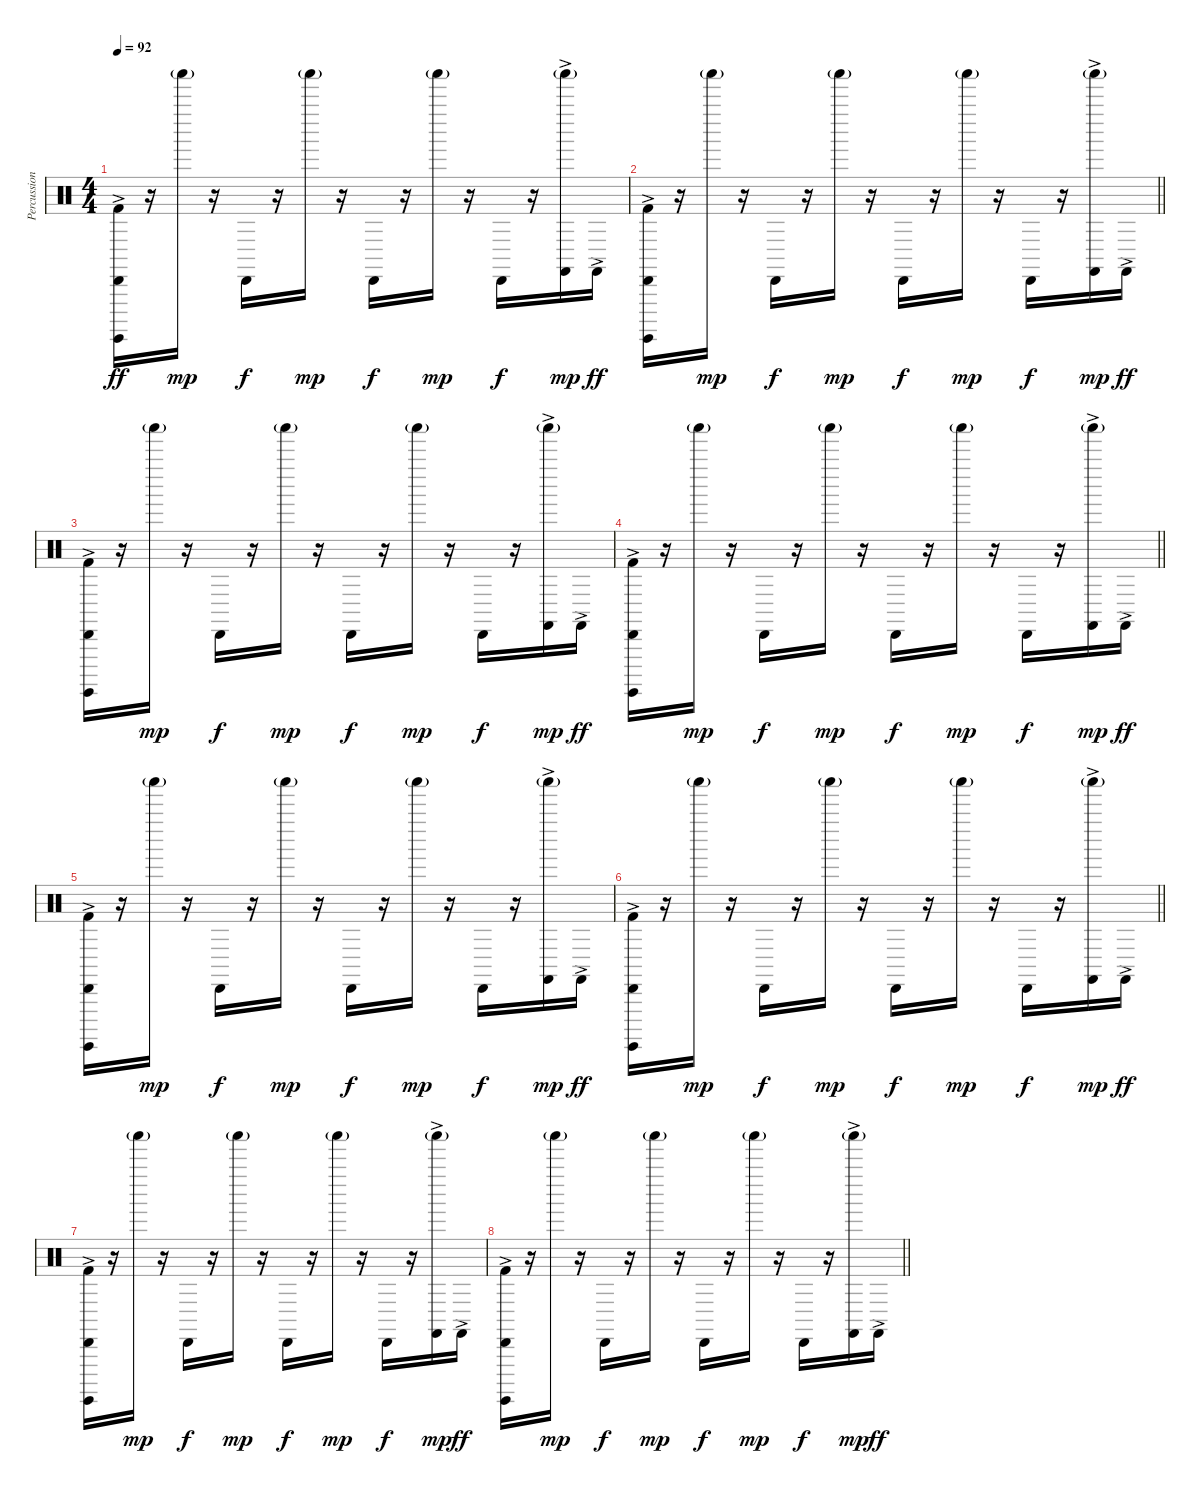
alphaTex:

\track ("Percussion" "Percussion") {instrument percussion}
\staff {score}
\articulation defaults
\ts (4 4)
\tempo 92
\clef neutral
\ks c
("Kick (hit) 2" "Surdo (hit)"{ac} "Cabasa (hit)").16{dy ff} r.16 "Shaker (hit)"{g}.16{dy mp} r.16 "Cabasa (hit)".16{dy f} r.16 "Shaker (hit)"{g}.16{dy mp} r.16 "Cabasa (hit)".16{dy f} r.16 "Shaker (hit)"{g}.16{dy mp} r.16 "Cabasa (hit)".16{dy f} r.16 ("Castanets (hit)"{ac} "Shaker (hit)"{g}).16{dy mp} "Castanets (hit)"{ac}.16{dy ff} |
\barLineRight lightlight
("Kick (hit) 2" "Surdo (hit)"{ac} "Cabasa (hit)").16 r.16 "Shaker (hit)"{g}.16{dy mp} r.16 "Cabasa (hit)".16{dy f} r.16 "Shaker (hit)"{g}.16{dy mp} r.16 "Cabasa (hit)".16{dy f} r.16 "Shaker (hit)"{g}.16{dy mp} r.16 "Cabasa (hit)".16{dy f} r.16 ("Castanets (hit)"{ac} "Shaker (hit)"{g}).16{dy mp} "Castanets (hit)"{ac}.16{dy ff} |
("Kick (hit) 2" "Surdo (hit)"{ac} "Cabasa (hit)").16 r.16 "Shaker (hit)"{g}.16{dy mp} r.16 "Cabasa (hit)".16{dy f} r.16 "Shaker (hit)"{g}.16{dy mp} r.16 "Cabasa (hit)".16{dy f} r.16 "Shaker (hit)"{g}.16{dy mp} r.16 "Cabasa (hit)".16{dy f} r.16 ("Castanets (hit)"{ac} "Shaker (hit)"{g}).16{dy mp} "Castanets (hit)"{ac}.16{dy ff} |
\barLineRight lightlight
("Kick (hit) 2" "Surdo (hit)"{ac} "Cabasa (hit)").16 r.16 "Shaker (hit)"{g}.16{dy mp} r.16 "Cabasa (hit)".16{dy f} r.16 "Shaker (hit)"{g}.16{dy mp} r.16 "Cabasa (hit)".16{dy f} r.16 "Shaker (hit)"{g}.16{dy mp} r.16 "Cabasa (hit)".16{dy f} r.16 ("Castanets (hit)"{ac} "Shaker (hit)"{g}).16{dy mp} "Castanets (hit)"{ac}.16{dy ff} |
("Kick (hit) 2" "Surdo (hit)"{ac} "Cabasa (hit)").16 r.16 "Shaker (hit)"{g}.16{dy mp} r.16 "Cabasa (hit)".16{dy f} r.16 "Shaker (hit)"{g}.16{dy mp} r.16 "Cabasa (hit)".16{dy f} r.16 "Shaker (hit)"{g}.16{dy mp} r.16 "Cabasa (hit)".16{dy f} r.16 ("Castanets (hit)"{ac} "Shaker (hit)"{g}).16{dy mp} "Castanets (hit)"{ac}.16{dy ff} |
\barLineRight lightlight
("Kick (hit) 2" "Surdo (hit)"{ac} "Cabasa (hit)").16 r.16 "Shaker (hit)"{g}.16{dy mp} r.16 "Cabasa (hit)".16{dy f} r.16 "Shaker (hit)"{g}.16{dy mp} r.16 "Cabasa (hit)".16{dy f} r.16 "Shaker (hit)"{g}.16{dy mp} r.16 "Cabasa (hit)".16{dy f} r.16 ("Castanets (hit)"{ac} "Shaker (hit)"{g}).16{dy mp} "Castanets (hit)"{ac}.16{dy ff} |
("Kick (hit) 2" "Surdo (hit)"{ac} "Cabasa (hit)").16 r.16 "Shaker (hit)"{g}.16{dy mp} r.16 "Cabasa (hit)".16{dy f} r.16 "Shaker (hit)"{g}.16{dy mp} r.16 "Cabasa (hit)".16{dy f} r.16 "Shaker (hit)"{g}.16{dy mp} r.16 "Cabasa (hit)".16{dy f} r.16 ("Castanets (hit)"{ac} "Shaker (hit)"{g}).16{dy mp} "Castanets (hit)"{ac}.16{dy ff} |
\barLineRight lightlight
("Kick (hit) 2" "Surdo (hit)"{ac} "Cabasa (hit)").16 r.16 "Shaker (hit)"{g}.16{dy mp} r.16 "Cabasa (hit)".16{dy f} r.16 "Shaker (hit)"{g}.16{dy mp} r.16 "Cabasa (hit)".16{dy f} r.16 "Shaker (hit)"{g}.16{dy mp} r.16 "Cabasa (hit)".16{dy f} r.16 ("Castanets (hit)"{ac} "Shaker (hit)"{g}).16{dy mp} "Castanets (hit)"{ac}.16{dy ff}
